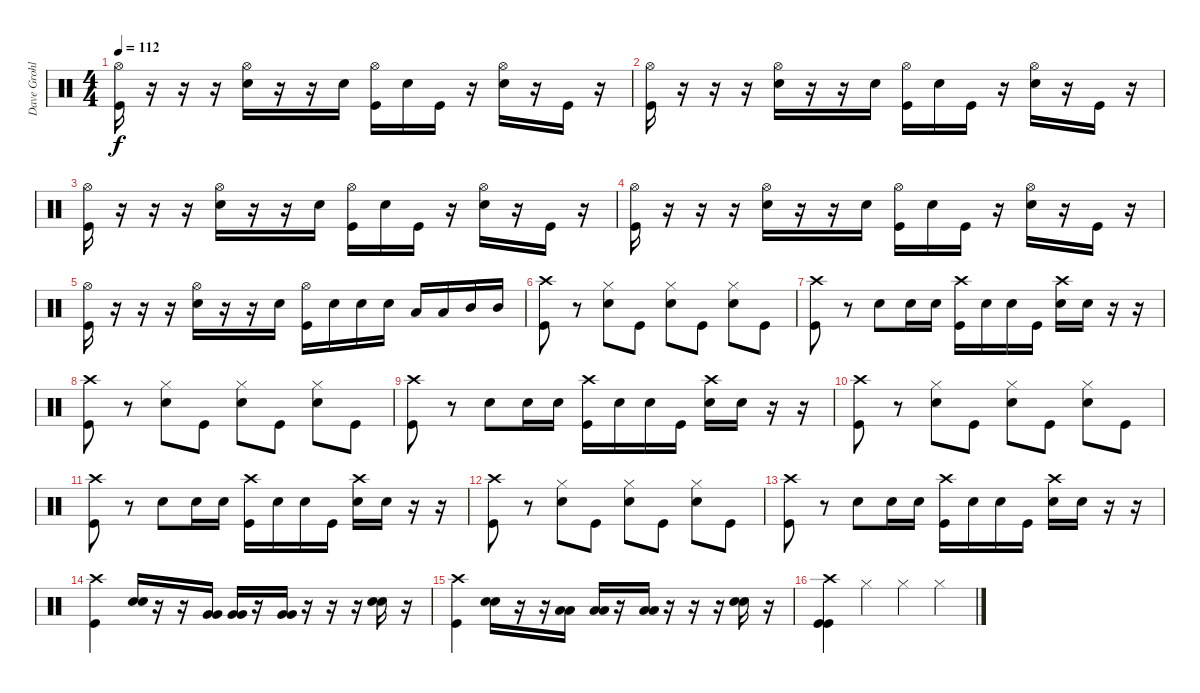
\track ("Dave Grohl (Drums)" "Dave Grohl") {instrument percussion}
\staff {score}
\articulation defaults
\ts (4 4)
\tempo 112
\clef neutral
\ks c
("Hi-Hat (open)" "Kick (hit)").16{dy f} r.16 r.16 r.16 ("Hi-Hat (open)" "Electric Snare (hit)").16 r.16 r.16 "Electric Snare (hit)".16 ("Hi-Hat (open)" "Kick (hit)").16 "Electric Snare (hit)".16 "Kick (hit)".16 r.16 ("Hi-Hat (open)" "Electric Snare (hit)").16 r.16 "Kick (hit)".16 r.16 |
("Hi-Hat (open)" "Kick (hit)").16 r.16 r.16 r.16 ("Hi-Hat (open)" "Electric Snare (hit)").16 r.16 r.16 "Electric Snare (hit)".16 ("Hi-Hat (open)" "Kick (hit)").16 "Electric Snare (hit)".16 "Kick (hit)".16 r.16 ("Hi-Hat (open)" "Electric Snare (hit)").16 r.16 "Kick (hit)".16 r.16 |
("Hi-Hat (open)" "Kick (hit)").16 r.16 r.16 r.16 ("Hi-Hat (open)" "Electric Snare (hit)").16 r.16 r.16 "Electric Snare (hit)".16 ("Hi-Hat (open)" "Kick (hit)").16 "Electric Snare (hit)".16 "Kick (hit)".16 r.16 ("Hi-Hat (open)" "Electric Snare (hit)").16 r.16 "Kick (hit)".16 r.16 |
("Hi-Hat (open)" "Kick (hit)").16 r.16 r.16 r.16 ("Hi-Hat (open)" "Electric Snare (hit)").16 r.16 r.16 "Electric Snare (hit)".16 ("Hi-Hat (open)" "Kick (hit)").16 "Electric Snare (hit)".16 "Kick (hit)".16 r.16 ("Hi-Hat (open)" "Electric Snare (hit)").16 r.16 "Kick (hit)".16 r.16 |
("Hi-Hat (open)" "Kick (hit)").16 r.16 r.16 r.16 ("Hi-Hat (open)" "Electric Snare (hit)").16 r.16 r.16 "Electric Snare (hit)".16 ("Hi-Hat (open)" "Kick (hit)").16 "Electric Snare (hit)".16 "Electric Snare (hit)".16 "Electric Snare (hit)".16 "Low Tom (hit)".16 "Low Tom (hit)".16 "Mid Tom (hit)".16 "Mid Tom (hit)".16 |
("Crash high (hit)" "Kick (hit)").8 r.8 ("Hi-Hat (closed)" "Electric Snare (hit)").8 "Kick (hit)".8 ("Hi-Hat (closed)" "Electric Snare (hit)").8 "Kick (hit)".8 ("Hi-Hat (closed)" "Electric Snare (hit)").8 "Kick (hit)".8 |
("Crash high (hit)" "Kick (hit)").8 r.8 "Electric Snare (hit)".8 "Electric Snare (hit)".16 "Electric Snare (hit)".16 ("Crash high (hit)" "Kick (hit)").16 "Electric Snare (hit)".16 "Electric Snare (hit)".16 "Kick (hit)".16 ("Crash high (hit)" "Electric Snare (hit)").16 "Electric Snare (hit)".16 r.16 r.16 |
("Crash high (hit)" "Kick (hit)").8 r.8 ("Hi-Hat (closed)" "Electric Snare (hit)").8 "Kick (hit)".8 ("Hi-Hat (closed)" "Electric Snare (hit)").8 "Kick (hit)".8 ("Hi-Hat (closed)" "Electric Snare (hit)").8 "Kick (hit)".8 |
("Crash high (hit)" "Kick (hit)").8 r.8 "Electric Snare (hit)".8 "Electric Snare (hit)".16 "Electric Snare (hit)".16 ("Crash high (hit)" "Kick (hit)").16 "Electric Snare (hit)".16 "Electric Snare (hit)".16 "Kick (hit)".16 ("Crash high (hit)" "Electric Snare (hit)").16 "Electric Snare (hit)".16 r.16 r.16 |
("Crash high (hit)" "Kick (hit)").8 r.8 ("Hi-Hat (closed)" "Electric Snare (hit)").8 "Kick (hit)".8 ("Hi-Hat (closed)" "Electric Snare (hit)").8 "Kick (hit)".8 ("Hi-Hat (closed)" "Electric Snare (hit)").8 "Kick (hit)".8 |
("Crash high (hit)" "Kick (hit)").8 r.8 "Electric Snare (hit)".8 "Electric Snare (hit)".16 "Electric Snare (hit)".16 ("Crash high (hit)" "Kick (hit)").16 "Electric Snare (hit)".16 "Electric Snare (hit)".16 "Kick (hit)".16 ("Crash high (hit)" "Electric Snare (hit)").16 "Electric Snare (hit)".16 r.16 r.16 |
("Crash high (hit)" "Kick (hit)").8 r.8 ("Hi-Hat (closed)" "Electric Snare (hit)").8 "Kick (hit)".8 ("Hi-Hat (closed)" "Electric Snare (hit)").8 "Kick (hit)".8 ("Hi-Hat (closed)" "Electric Snare (hit)").8 "Kick (hit)".8 |
("Crash high (hit)" "Kick (hit)").8 r.8 "Electric Snare (hit)".8 "Electric Snare (hit)".16 "Electric Snare (hit)".16 ("Crash high (hit)" "Kick (hit)").16 "Electric Snare (hit)".16 "Electric Snare (hit)".16 "Kick (hit)".16 ("Crash high (hit)" "Electric Snare (hit)").16 "Electric Snare (hit)".16 r.16 r.16 |
("Crash high (hit)" "Kick (hit)").4 ("Electric Snare (hit)" "Electric Snare (hit)").16 r.16 r.16 ("Very Low Tom (hit)" "Very Low Tom (hit)").16 ("Very Low Tom (hit)" "Very Low Tom (hit)").16 r.16 ("Very Low Tom (hit)" "Very Low Tom (hit)").16 r.16 r.16 r.16 ("Electric Snare (hit)" "Electric Snare (hit)").16 r.16 |
("Crash high (hit)" "Kick (hit)").4 ("Electric Snare (hit)" "Electric Snare (hit)").16 r.16 r.16 ("Low Floor Tom (hit)" "Low Floor Tom (hit)").16 ("Low Floor Tom (hit)" "Low Floor Tom (hit)").16 r.16 ("Low Floor Tom (hit)" "Low Floor Tom (hit)").16 r.16 r.16 r.16 ("Electric Snare (hit)" "Electric Snare (hit)").16 r.16 |
("Crash high (hit)" "Kick (hit)" "Kick (hit)").4 "Hi-Hat (closed)".4 "Hi-Hat (closed)".4 "Hi-Hat (closed)".4
